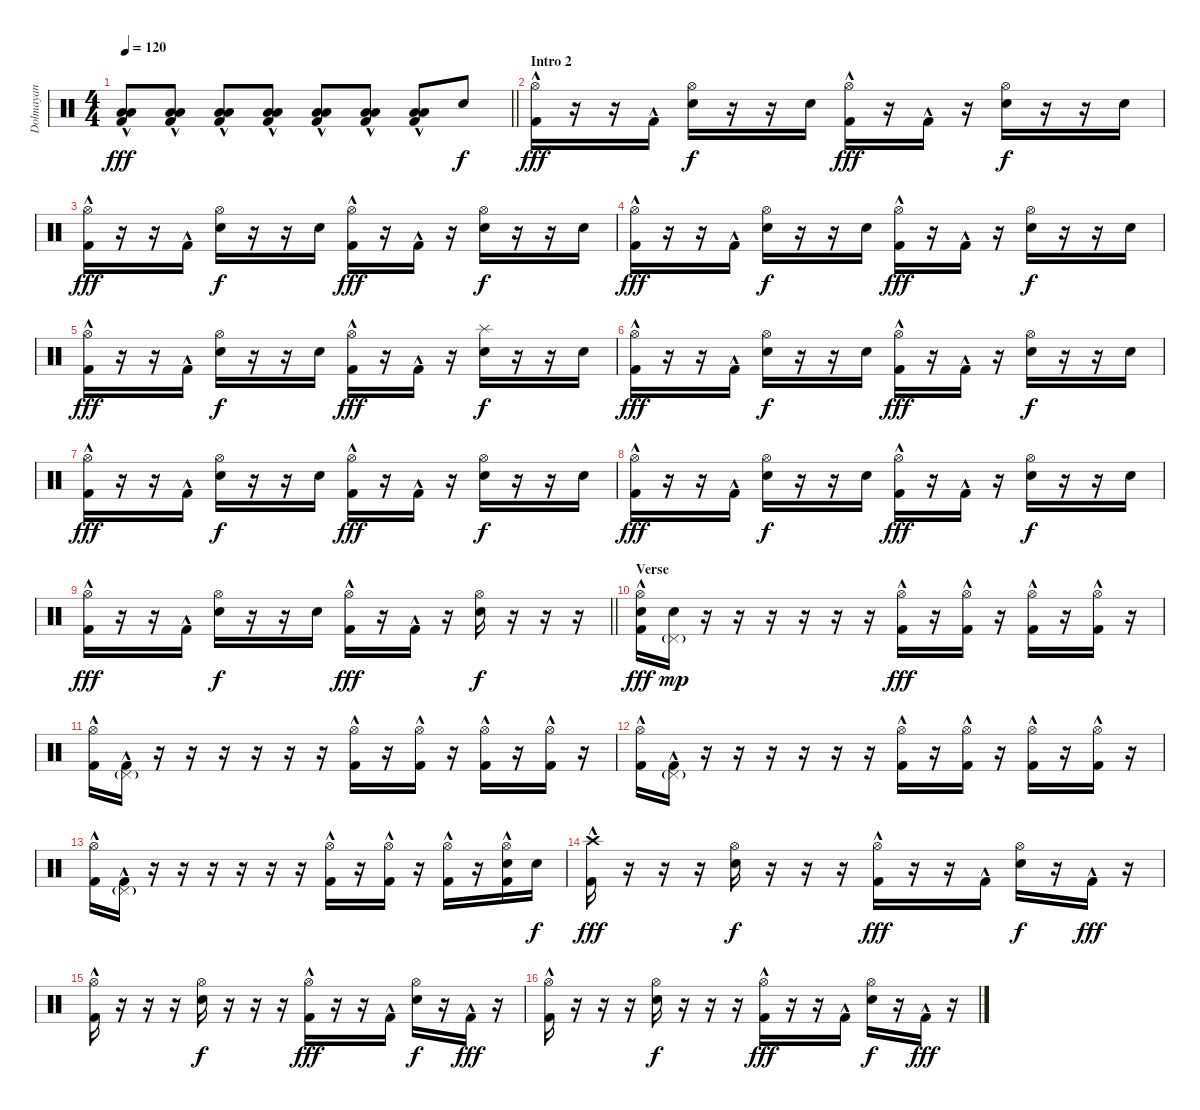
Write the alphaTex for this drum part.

\track ("Dolmayan" "Dolmayan") {instrument percussion}
\staff {score}
\articulation defaults
\ts (4 4)
\tempo 120
\clef neutral
\barLineRight lightlight
\ks c
("Low Tom (hit)" "Low Floor Tom (hit)" "Kick (hit) 2"{hac}).8{dy fff} ("Low Tom (hit)" "Low Floor Tom (hit)" "Kick (hit) 2"{hac}).8 ("Low Tom (hit)" "Low Floor Tom (hit)" "Kick (hit) 2"{hac}).8 ("Low Tom (hit)" "Low Floor Tom (hit)" "Kick (hit) 2"{hac}).8 ("Low Tom (hit)" "Low Floor Tom (hit)" "Kick (hit) 2"{hac}).8 ("Low Tom (hit)" "Low Floor Tom (hit)" "Kick (hit) 2"{hac}).8 ("Low Tom (hit)" "Low Floor Tom (hit)" "Kick (hit) 2"{hac}).8 "Snare (hit) 2".8{dy f} |
\section ("" "Intro 2")
("Hi-Hat (open)" "Kick (hit) 2"{hac}).16{dy fff} r.16 r.16 "Kick (hit) 2"{hac}.16 ("Hi-Hat (open)" "Snare (hit) 2").16{dy f} r.16 r.16 "Snare (hit) 2".16 ("Hi-Hat (open)" "Kick (hit) 2"{hac}).16{dy fff} r.16 "Kick (hit) 2"{hac}.16 r.16 ("Hi-Hat (open)" "Snare (hit) 2").16{dy f} r.16 r.16 "Snare (hit) 2".16 |
("Hi-Hat (open)" "Kick (hit) 2"{hac}).16{dy fff} r.16 r.16 "Kick (hit) 2"{hac}.16 ("Hi-Hat (open)" "Snare (hit) 2").16{dy f} r.16 r.16 "Snare (hit) 2".16 ("Hi-Hat (open)" "Kick (hit) 2"{hac}).16{dy fff} r.16 "Kick (hit) 2"{hac}.16 r.16 ("Hi-Hat (open)" "Snare (hit) 2").16{dy f} r.16 r.16 "Snare (hit) 2".16 |
("Hi-Hat (open)" "Kick (hit) 2"{hac}).16{dy fff} r.16 r.16 "Kick (hit) 2"{hac}.16 ("Hi-Hat (open)" "Snare (hit) 2").16{dy f} r.16 r.16 "Snare (hit) 2".16 ("Hi-Hat (open)" "Kick (hit) 2"{hac}).16{dy fff} r.16 "Kick (hit) 2"{hac}.16 r.16 ("Hi-Hat (open)" "Snare (hit) 2").16{dy f} r.16 r.16 "Snare (hit) 2".16 |
("Hi-Hat (open)" "Kick (hit) 2"{hac}).16{dy fff} r.16 r.16 "Kick (hit) 2"{hac}.16 ("Hi-Hat (open)" "Snare (hit) 2").16{dy f} r.16 r.16 "Snare (hit) 2".16 ("Hi-Hat (open)" "Kick (hit) 2"{hac}).16{dy fff} r.16 "Kick (hit) 2"{hac}.16 r.16 ("Splash (hit)" "Snare (hit) 2").16{dy f} r.16 r.16 "Snare (hit) 2".16 |
("Hi-Hat (open)" "Kick (hit) 2"{hac}).16{dy fff} r.16 r.16 "Kick (hit) 2"{hac}.16 ("Hi-Hat (open)" "Snare (hit) 2").16{dy f} r.16 r.16 "Snare (hit) 2".16 ("Hi-Hat (open)" "Kick (hit) 2"{hac}).16{dy fff} r.16 "Kick (hit) 2"{hac}.16 r.16 ("Hi-Hat (open)" "Snare (hit) 2").16{dy f} r.16 r.16 "Snare (hit) 2".16 |
("Hi-Hat (open)" "Kick (hit) 2"{hac}).16{dy fff} r.16 r.16 "Kick (hit) 2"{hac}.16 ("Hi-Hat (open)" "Snare (hit) 2").16{dy f} r.16 r.16 "Snare (hit) 2".16 ("Hi-Hat (open)" "Kick (hit) 2"{hac}).16{dy fff} r.16 "Kick (hit) 2"{hac}.16 r.16 ("Hi-Hat (open)" "Snare (hit) 2").16{dy f} r.16 r.16 "Snare (hit) 2".16 |
("Hi-Hat (open)" "Kick (hit) 2"{hac}).16{dy fff} r.16 r.16 "Kick (hit) 2"{hac}.16 ("Hi-Hat (open)" "Snare (hit) 2").16{dy f} r.16 r.16 "Snare (hit) 2".16 ("Hi-Hat (open)" "Kick (hit) 2"{hac}).16{dy fff} r.16 "Kick (hit) 2"{hac}.16 r.16 ("Hi-Hat (open)" "Snare (hit) 2").16{dy f} r.16 r.16 "Snare (hit) 2".16 |
\barLineRight lightlight
("Hi-Hat (open)" "Kick (hit) 2"{hac}).16{dy fff} r.16 r.16 "Kick (hit) 2"{hac}.16 ("Hi-Hat (open)" "Snare (hit) 2").16{dy f} r.16 r.16 "Snare (hit) 2".16 ("Hi-Hat (open)" "Kick (hit) 2"{hac}).16{dy fff} r.16 "Kick (hit) 2"{hac}.16 r.16 ("Hi-Hat (open)" "Snare (hit) 2").16{dy f} r.16 r.16 r.16 |
\section ("" "Verse")
("Hi-Hat (open)" "Snare (hit) 2" "Kick (hit) 2"{hac}).16{dy fff} ("Pedal Hi-Hat (hit)"{g} "Snare (hit) 2").16{dy mp} r.16 r.16 r.16 r.16 r.16 r.16 ("Hi-Hat (open)" "Kick (hit) 2"{hac}).16{dy fff} r.16 ("Hi-Hat (open)" "Kick (hit) 2"{hac}).16 r.16 ("Hi-Hat (open)" "Kick (hit) 2"{hac}).16 r.16 ("Hi-Hat (open)" "Kick (hit) 2"{hac}).16 r.16 |
("Hi-Hat (open)" "Kick (hit) 2"{hac}).16 ("Pedal Hi-Hat (hit)"{g} "Kick (hit) 2"{hac}).16 r.16 r.16 r.16 r.16 r.16 r.16 ("Hi-Hat (open)" "Kick (hit) 2"{hac}).16 r.16 ("Hi-Hat (open)" "Kick (hit) 2"{hac}).16 r.16 ("Hi-Hat (open)" "Kick (hit) 2"{hac}).16 r.16 ("Hi-Hat (open)" "Kick (hit) 2"{hac}).16 r.16 |
("Hi-Hat (open)" "Kick (hit) 2"{hac}).16 ("Pedal Hi-Hat (hit)"{g} "Kick (hit) 2"{hac}).16 r.16 r.16 r.16 r.16 r.16 r.16 ("Hi-Hat (open)" "Kick (hit) 2"{hac}).16 r.16 ("Hi-Hat (open)" "Kick (hit) 2"{hac}).16 r.16 ("Hi-Hat (open)" "Kick (hit) 2"{hac}).16 r.16 ("Hi-Hat (open)" "Kick (hit) 2"{hac}).16 r.16 |
("Hi-Hat (open)" "Kick (hit) 2"{hac}).16 ("Pedal Hi-Hat (hit)"{g} "Kick (hit) 2"{hac}).16 r.16 r.16 r.16 r.16 r.16 r.16 ("Hi-Hat (open)" "Kick (hit) 2"{hac}).16 r.16 ("Hi-Hat (open)" "Kick (hit) 2"{hac}).16 r.16 ("Hi-Hat (open)" "Kick (hit) 2"{hac}).16 r.16 ("Hi-Hat (open)" "Snare (hit) 2" "Kick (hit) 2"{hac}).16 "Snare (hit) 2".16{dy f} |
("Crash high (hit)" "Kick (hit) 2"{hac}).16{dy fff} r.16 r.16 r.16 ("Hi-Hat (open)" "Snare (hit) 2").16{dy f} r.16 r.16 r.16 ("Hi-Hat (open)" "Kick (hit) 2"{hac}).16{dy fff} r.16 r.16 "Kick (hit) 2"{hac}.16 ("Hi-Hat (open)" "Snare (hit) 2").16{dy f} r.16 "Kick (hit) 2"{hac}.16{dy fff} r.16 |
("Hi-Hat (open)" "Kick (hit) 2"{hac}).16 r.16 r.16 r.16 ("Hi-Hat (open)" "Snare (hit) 2").16{dy f} r.16 r.16 r.16 ("Hi-Hat (open)" "Kick (hit) 2"{hac}).16{dy fff} r.16 r.16 "Kick (hit) 2"{hac}.16 ("Hi-Hat (open)" "Snare (hit) 2").16{dy f} r.16 "Kick (hit) 2"{hac}.16{dy fff} r.16 |
("Hi-Hat (open)" "Kick (hit) 2"{hac}).16 r.16 r.16 r.16 ("Hi-Hat (open)" "Snare (hit) 2").16{dy f} r.16 r.16 r.16 ("Hi-Hat (open)" "Kick (hit) 2"{hac}).16{dy fff} r.16 r.16 "Kick (hit) 2"{hac}.16 ("Hi-Hat (open)" "Snare (hit) 2").16{dy f} r.16 "Kick (hit) 2"{hac}.16{dy fff} r.16
